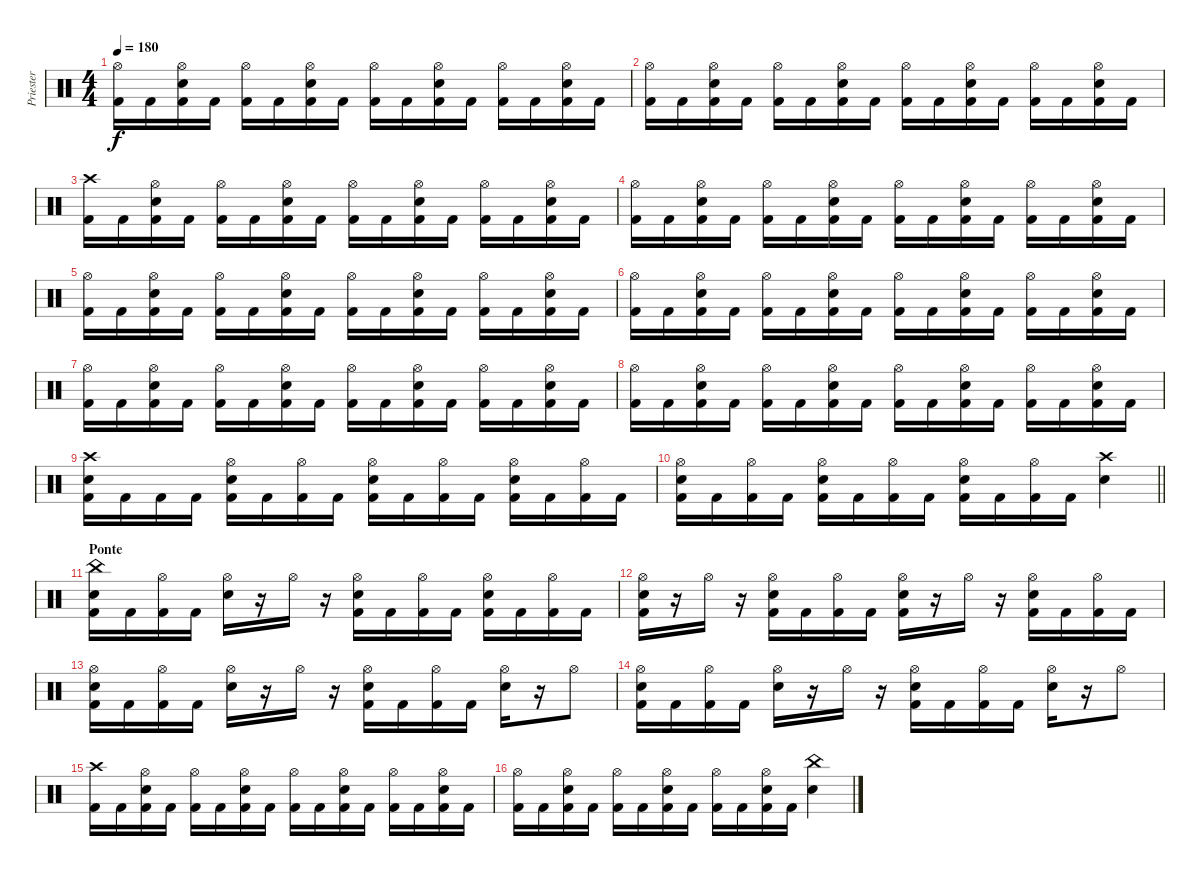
\track ("Priester" "Priester") {instrument percussion}
\staff {score}
\articulation defaults
\ts (4 4)
\tempo 180
\clef neutral
\ks c
("Hi-Hat (open)" "Kick (hit) 2").16{dy f} "Kick (hit) 2".16 ("Hi-Hat (open)" "Electric Snare (hit)" "Kick (hit) 2").16 "Kick (hit) 2".16 ("Hi-Hat (open)" "Kick (hit) 2").16 "Kick (hit) 2".16 ("Hi-Hat (open)" "Electric Snare (hit)" "Kick (hit) 2").16 "Kick (hit) 2".16 ("Hi-Hat (open)" "Kick (hit) 2").16 "Kick (hit) 2".16 ("Hi-Hat (open)" "Electric Snare (hit)" "Kick (hit) 2").16 "Kick (hit) 2".16 ("Hi-Hat (open)" "Kick (hit) 2").16 "Kick (hit) 2".16 ("Hi-Hat (open)" "Electric Snare (hit)" "Kick (hit) 2").16 "Kick (hit) 2".16 |
("Hi-Hat (open)" "Kick (hit) 2").16 "Kick (hit) 2".16 ("Hi-Hat (open)" "Electric Snare (hit)" "Kick (hit) 2").16 "Kick (hit) 2".16 ("Hi-Hat (open)" "Kick (hit) 2").16 "Kick (hit) 2".16 ("Hi-Hat (open)" "Electric Snare (hit)" "Kick (hit) 2").16 "Kick (hit) 2".16 ("Hi-Hat (open)" "Kick (hit) 2").16 "Kick (hit) 2".16 ("Hi-Hat (open)" "Electric Snare (hit)" "Kick (hit) 2").16 "Kick (hit) 2".16 ("Hi-Hat (open)" "Kick (hit) 2").16 "Kick (hit) 2".16 ("Hi-Hat (open)" "Electric Snare (hit)" "Kick (hit) 2").16 "Kick (hit) 2".16 |
("Crash high (hit)" "Kick (hit) 2").16 "Kick (hit) 2".16 ("Hi-Hat (open)" "Electric Snare (hit)" "Kick (hit) 2").16 "Kick (hit) 2".16 ("Hi-Hat (open)" "Kick (hit) 2").16 "Kick (hit) 2".16 ("Hi-Hat (open)" "Electric Snare (hit)" "Kick (hit) 2").16 "Kick (hit) 2".16 ("Hi-Hat (open)" "Kick (hit) 2").16 "Kick (hit) 2".16 ("Hi-Hat (open)" "Electric Snare (hit)" "Kick (hit) 2").16 "Kick (hit) 2".16 ("Hi-Hat (open)" "Kick (hit) 2").16 "Kick (hit) 2".16 ("Hi-Hat (open)" "Electric Snare (hit)" "Kick (hit) 2").16 "Kick (hit) 2".16 |
("Hi-Hat (open)" "Kick (hit) 2").16 "Kick (hit) 2".16 ("Hi-Hat (open)" "Electric Snare (hit)" "Kick (hit) 2").16 "Kick (hit) 2".16 ("Hi-Hat (open)" "Kick (hit) 2").16 "Kick (hit) 2".16 ("Hi-Hat (open)" "Electric Snare (hit)" "Kick (hit) 2").16 "Kick (hit) 2".16 ("Hi-Hat (open)" "Kick (hit) 2").16 "Kick (hit) 2".16 ("Hi-Hat (open)" "Electric Snare (hit)" "Kick (hit) 2").16 "Kick (hit) 2".16 ("Hi-Hat (open)" "Kick (hit) 2").16 "Kick (hit) 2".16 ("Hi-Hat (open)" "Electric Snare (hit)" "Kick (hit) 2").16 "Kick (hit) 2".16 |
("Hi-Hat (open)" "Kick (hit) 2").16 "Kick (hit) 2".16 ("Hi-Hat (open)" "Electric Snare (hit)" "Kick (hit) 2").16 "Kick (hit) 2".16 ("Hi-Hat (open)" "Kick (hit) 2").16 "Kick (hit) 2".16 ("Hi-Hat (open)" "Electric Snare (hit)" "Kick (hit) 2").16 "Kick (hit) 2".16 ("Hi-Hat (open)" "Kick (hit) 2").16 "Kick (hit) 2".16 ("Hi-Hat (open)" "Electric Snare (hit)" "Kick (hit) 2").16 "Kick (hit) 2".16 ("Hi-Hat (open)" "Kick (hit) 2").16 "Kick (hit) 2".16 ("Hi-Hat (open)" "Electric Snare (hit)" "Kick (hit) 2").16 "Kick (hit) 2".16 |
("Hi-Hat (open)" "Kick (hit) 2").16 "Kick (hit) 2".16 ("Hi-Hat (open)" "Electric Snare (hit)" "Kick (hit) 2").16 "Kick (hit) 2".16 ("Hi-Hat (open)" "Kick (hit) 2").16 "Kick (hit) 2".16 ("Hi-Hat (open)" "Electric Snare (hit)" "Kick (hit) 2").16 "Kick (hit) 2".16 ("Hi-Hat (open)" "Kick (hit) 2").16 "Kick (hit) 2".16 ("Hi-Hat (open)" "Electric Snare (hit)" "Kick (hit) 2").16 "Kick (hit) 2".16 ("Hi-Hat (open)" "Kick (hit) 2").16 "Kick (hit) 2".16 ("Hi-Hat (open)" "Electric Snare (hit)" "Kick (hit) 2").16 "Kick (hit) 2".16 |
("Hi-Hat (open)" "Kick (hit) 2").16 "Kick (hit) 2".16 ("Hi-Hat (open)" "Electric Snare (hit)" "Kick (hit) 2").16 "Kick (hit) 2".16 ("Hi-Hat (open)" "Kick (hit) 2").16 "Kick (hit) 2".16 ("Hi-Hat (open)" "Electric Snare (hit)" "Kick (hit) 2").16 "Kick (hit) 2".16 ("Hi-Hat (open)" "Kick (hit) 2").16 "Kick (hit) 2".16 ("Hi-Hat (open)" "Electric Snare (hit)" "Kick (hit) 2").16 "Kick (hit) 2".16 ("Hi-Hat (open)" "Kick (hit) 2").16 "Kick (hit) 2".16 ("Hi-Hat (open)" "Electric Snare (hit)" "Kick (hit) 2").16 "Kick (hit) 2".16 |
("Hi-Hat (open)" "Kick (hit) 2").16 "Kick (hit) 2".16 ("Hi-Hat (open)" "Electric Snare (hit)" "Kick (hit) 2").16 "Kick (hit) 2".16 ("Hi-Hat (open)" "Kick (hit) 2").16 "Kick (hit) 2".16 ("Hi-Hat (open)" "Electric Snare (hit)" "Kick (hit) 2").16 "Kick (hit) 2".16 ("Hi-Hat (open)" "Kick (hit) 2").16 "Kick (hit) 2".16 ("Hi-Hat (open)" "Electric Snare (hit)" "Kick (hit) 2").16 "Kick (hit) 2".16 ("Hi-Hat (open)" "Kick (hit) 2").16 "Kick (hit) 2".16 ("Hi-Hat (open)" "Electric Snare (hit)" "Kick (hit) 2").16 "Kick (hit) 2".16 |
("Crash high (hit)" "Electric Snare (hit)" "Kick (hit) 2").16 "Kick (hit) 2".16 "Kick (hit) 2".16 "Kick (hit) 2".16 ("Hi-Hat (open)" "Electric Snare (hit)" "Kick (hit) 2").16 "Kick (hit) 2".16 ("Hi-Hat (open)" "Kick (hit) 2").16 "Kick (hit) 2".16 ("Hi-Hat (open)" "Electric Snare (hit)" "Kick (hit) 2").16 "Kick (hit) 2".16 ("Hi-Hat (open)" "Kick (hit) 2").16 "Kick (hit) 2".16 ("Hi-Hat (open)" "Electric Snare (hit)" "Kick (hit) 2").16 "Kick (hit) 2".16 ("Hi-Hat (open)" "Kick (hit) 2").16 "Kick (hit) 2".16 |
\barLineRight lightlight
("Hi-Hat (open)" "Electric Snare (hit)" "Kick (hit) 2").16 "Kick (hit) 2".16 ("Hi-Hat (open)" "Kick (hit) 2").16 "Kick (hit) 2".16 ("Hi-Hat (open)" "Electric Snare (hit)" "Kick (hit) 2").16 "Kick (hit) 2".16 ("Hi-Hat (open)" "Kick (hit) 2").16 "Kick (hit) 2".16 ("Hi-Hat (open)" "Electric Snare (hit)" "Kick (hit) 2").16 "Kick (hit) 2".16 ("Hi-Hat (open)" "Kick (hit) 2").16 "Kick (hit) 2".16 ("Crash high (hit)" "Electric Snare (hit)").4 |
\section ("" "Ponte")
("China (hit)" "Electric Snare (hit)" "Kick (hit) 2").16 "Kick (hit) 2".16 ("Hi-Hat (open)" "Kick (hit) 2").16 "Kick (hit) 2".16 ("Hi-Hat (open)" "Electric Snare (hit)").16 r.16 "Hi-Hat (open)".16 r.16 ("Hi-Hat (open)" "Electric Snare (hit)" "Kick (hit) 2").16 "Kick (hit) 2".16 ("Hi-Hat (open)" "Kick (hit) 2").16 "Kick (hit) 2".16 ("Hi-Hat (open)" "Electric Snare (hit)" "Kick (hit) 2").16 "Kick (hit) 2".16 ("Hi-Hat (open)" "Kick (hit) 2").16 "Kick (hit) 2".16 |
("Hi-Hat (open)" "Electric Snare (hit)" "Kick (hit) 2").16 r.16 "Hi-Hat (open)".16 r.16 ("Hi-Hat (open)" "Electric Snare (hit)" "Kick (hit) 2").16 "Kick (hit) 2".16 ("Hi-Hat (open)" "Kick (hit) 2").16 "Kick (hit) 2".16 ("Hi-Hat (open)" "Electric Snare (hit)" "Kick (hit) 2").16 r.16 "Hi-Hat (open)".16 r.16 ("Hi-Hat (open)" "Electric Snare (hit)" "Kick (hit) 2").16 "Kick (hit) 2".16 ("Hi-Hat (open)" "Kick (hit) 2").16 "Kick (hit) 2".16 |
("Hi-Hat (open)" "Electric Snare (hit)" "Kick (hit) 2").16 "Kick (hit) 2".16 ("Hi-Hat (open)" "Kick (hit) 2").16 "Kick (hit) 2".16 ("Hi-Hat (open)" "Electric Snare (hit)").16 r.16 "Hi-Hat (open)".16 r.16 ("Hi-Hat (open)" "Electric Snare (hit)" "Kick (hit) 2").16 "Kick (hit) 2".16 ("Hi-Hat (open)" "Kick (hit) 2").16 "Kick (hit) 2".16 ("Hi-Hat (open)" "Electric Snare (hit)").16 r.16 "Hi-Hat (open)".8 |
("Hi-Hat (open)" "Electric Snare (hit)" "Kick (hit) 2").16 "Kick (hit) 2".16 ("Hi-Hat (open)" "Kick (hit) 2").16 "Kick (hit) 2".16 ("Hi-Hat (open)" "Electric Snare (hit)").16 r.16 "Hi-Hat (open)".16 r.16 ("Hi-Hat (open)" "Electric Snare (hit)" "Kick (hit) 2").16 "Kick (hit) 2".16 ("Hi-Hat (open)" "Kick (hit) 2").16 "Kick (hit) 2".16 ("Hi-Hat (open)" "Electric Snare (hit)").16 r.16 "Hi-Hat (open)".8 |
("Crash high (hit)" "Kick (hit) 2").16 "Kick (hit) 2".16 ("Hi-Hat (open)" "Electric Snare (hit)" "Kick (hit) 2").16 "Kick (hit) 2".16 ("Hi-Hat (open)" "Kick (hit) 2").16 "Kick (hit) 2".16 ("Hi-Hat (open)" "Electric Snare (hit)" "Kick (hit) 2").16 "Kick (hit) 2".16 ("Hi-Hat (open)" "Kick (hit) 2").16 "Kick (hit) 2".16 ("Hi-Hat (open)" "Electric Snare (hit)" "Kick (hit) 2").16 "Kick (hit) 2".16 ("Hi-Hat (open)" "Kick (hit) 2").16 "Kick (hit) 2".16 ("Hi-Hat (open)" "Electric Snare (hit)" "Kick (hit) 2").16 "Kick (hit) 2".16 |
("Hi-Hat (open)" "Kick (hit) 2").16 "Kick (hit) 2".16 ("Hi-Hat (open)" "Electric Snare (hit)" "Kick (hit) 2").16 "Kick (hit) 2".16 ("Hi-Hat (open)" "Kick (hit) 2").16 "Kick (hit) 2".16 ("Hi-Hat (open)" "Electric Snare (hit)" "Kick (hit) 2").16 "Kick (hit) 2".16 ("Hi-Hat (open)" "Kick (hit) 2").16 "Kick (hit) 2".16 ("Hi-Hat (open)" "Electric Snare (hit)" "Kick (hit) 2").16 "Kick (hit) 2".16 ("China (hit)" "Electric Snare (hit)").4
